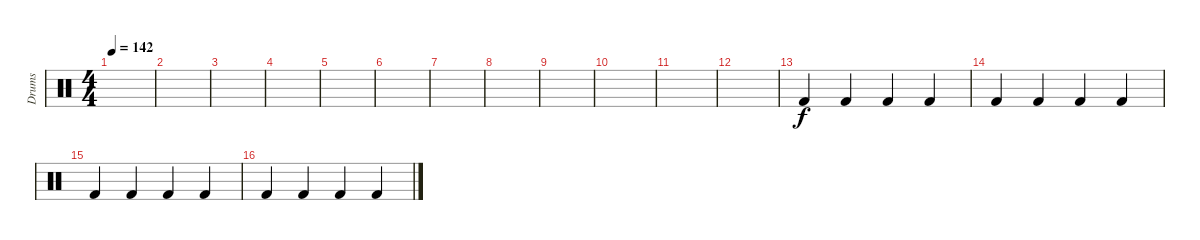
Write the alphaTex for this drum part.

\track ("Drums" "Drums") {instrument percussion}
\staff {score}
\articulation defaults
\ts (4 4)
\tempo 142
\clef neutral
\ks c
|
|
|
|
|
|
|
|
|
|
|
|
"Kick (hit) 2".4 "Kick (hit) 2".4 "Kick (hit) 2".4 "Kick (hit) 2".4 |
"Kick (hit) 2".4 "Kick (hit) 2".4 "Kick (hit) 2".4 "Kick (hit) 2".4 |
"Kick (hit) 2".4 "Kick (hit) 2".4 "Kick (hit) 2".4 "Kick (hit) 2".4 |
"Kick (hit) 2".4 "Kick (hit) 2".4 "Kick (hit) 2".4 "Kick (hit) 2".4
